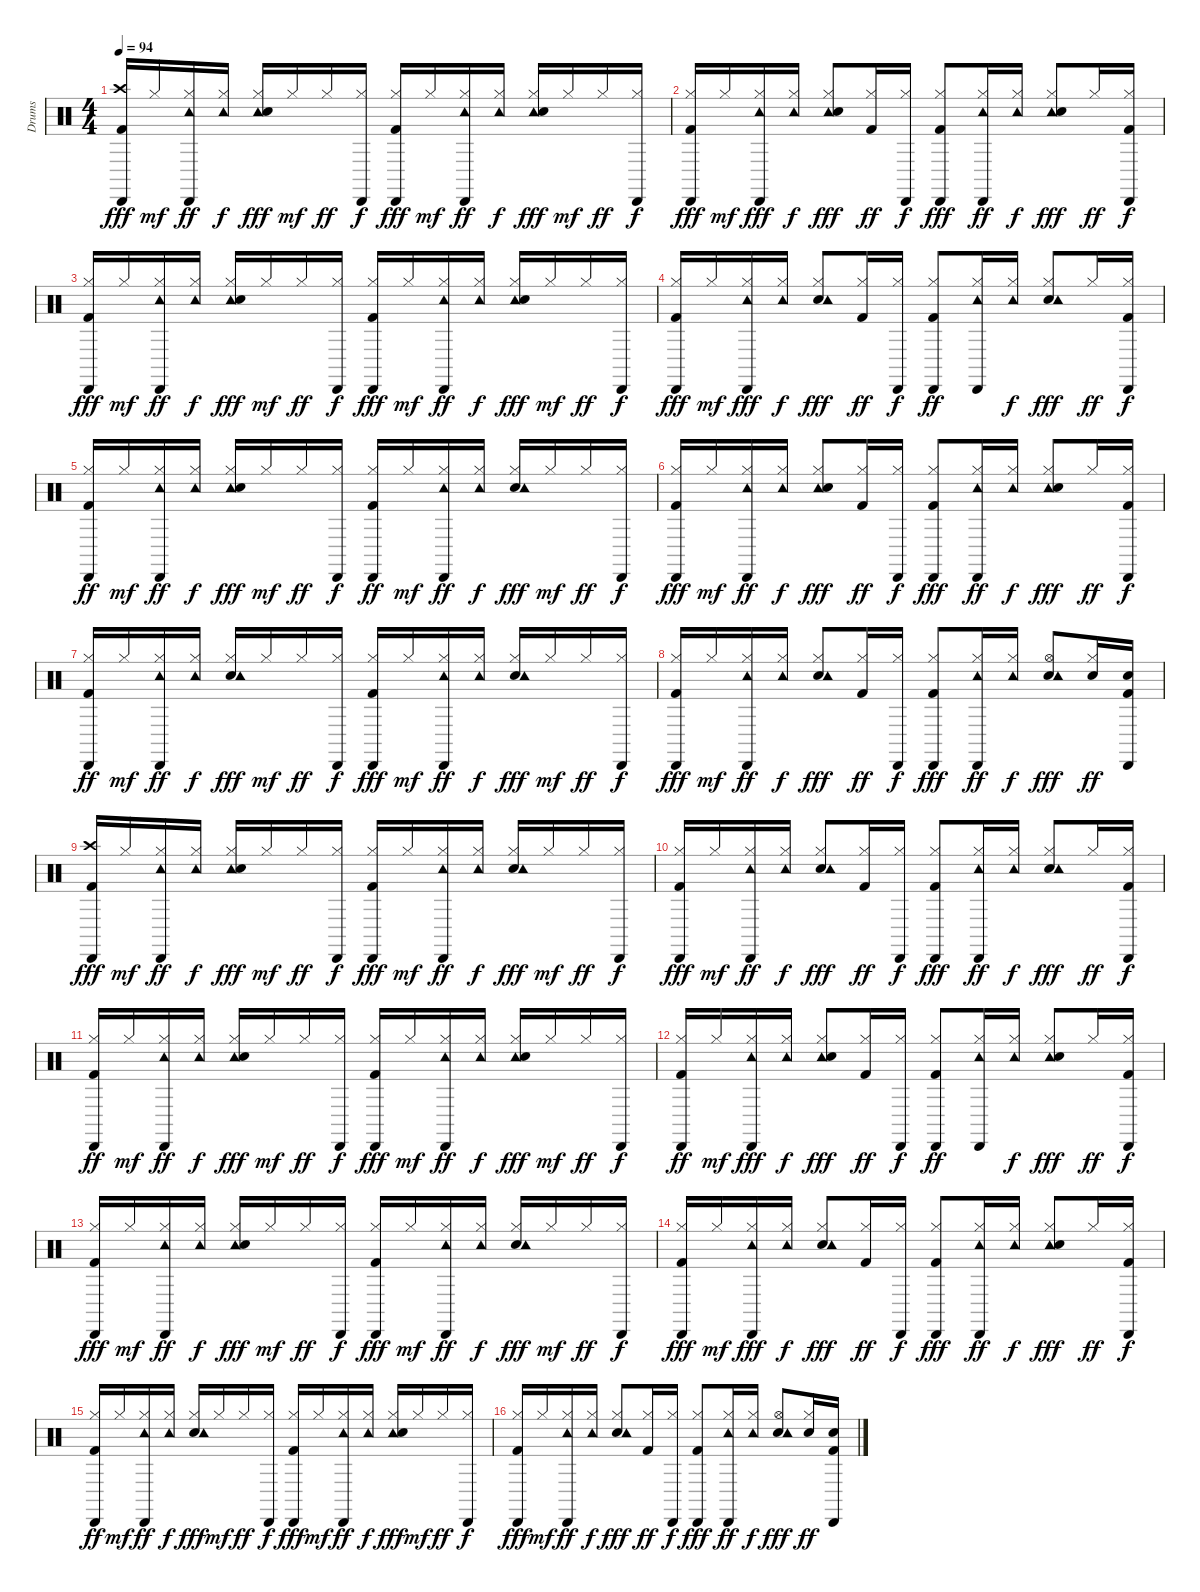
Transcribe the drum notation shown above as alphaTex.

\track ("Drums" "Drums") {instrument percussion}
\staff {score}
\articulation defaults
\ts (4 4)
\tempo 94
\clef neutral
\ks c
("Crash high (hit)" "Cabasa (hit)" "Kick (hit) 2").16{dy fff} "Hi-Hat (closed)".16{dy mf} ("Cabasa (hit)" "Hi-Hat (closed)" "Tambourine (hit)").16{dy ff} ("Tambourine (hit)" "Hi-Hat (closed)").16{dy f} ("Hi-Hat (closed)" "Tambourine (hit)" "Snare (hit) 2").16{dy fff} "Hi-Hat (closed)".16{dy mf} "Hi-Hat (closed)".16{dy ff} ("Hi-Hat (closed)" "Cabasa (hit)").16{dy f} ("Cabasa (hit)" "Kick (hit) 2" "Hi-Hat (closed)").16{dy fff} "Hi-Hat (closed)".16{dy mf} ("Hi-Hat (closed)" "Cabasa (hit)" "Tambourine (hit)").16{dy ff} ("Tambourine (hit)" "Hi-Hat (closed)").16{dy f} ("Hi-Hat (closed)" "Tambourine (hit)" "Snare (hit) 2").16{dy fff} "Hi-Hat (closed)".16{dy mf} "Hi-Hat (closed)".16{dy ff} ("Hi-Hat (closed)" "Cabasa (hit)").16{dy f} |
("Cabasa (hit)" "Hi-Hat (closed)" "Kick (hit) 2").16{dy fff} "Hi-Hat (closed)".16{dy mf} ("Cabasa (hit)" "Hi-Hat (closed)" "Tambourine (hit)").16{dy fff} ("Tambourine (hit)" "Hi-Hat (closed)").16{dy f} ("Tambourine (hit)" "Hi-Hat (closed)" "Snare (hit) 2").8{dy fff} ("Hi-Hat (closed)" "Kick (hit) 2").16{dy ff} ("Hi-Hat (closed)" "Cabasa (hit)").16{dy f} ("Cabasa (hit)" "Hi-Hat (closed)" "Kick (hit) 2").8{dy fff} ("Cabasa (hit)" "Tambourine (hit)" "Hi-Hat (closed)").16{dy ff} ("Hi-Hat (closed)" "Tambourine (hit)").16{dy f} ("Hi-Hat (closed)" "Tambourine (hit)" "Snare (hit) 2").8{dy fff} "Hi-Hat (closed)".16{dy ff} ("Hi-Hat (closed)" "Cabasa (hit)" "Kick (hit) 2").16{dy f} |
("Cabasa (hit)" "Hi-Hat (closed)" "Kick (hit) 2").16{dy fff} "Hi-Hat (closed)".16{dy mf} ("Cabasa (hit)" "Hi-Hat (closed)" "Tambourine (hit)").16{dy ff} ("Tambourine (hit)" "Hi-Hat (closed)").16{dy f} ("Hi-Hat (closed)" "Tambourine (hit)" "Snare (hit) 2").16{dy fff} "Hi-Hat (closed)".16{dy mf} "Hi-Hat (closed)".16{dy ff} ("Cabasa (hit)" "Hi-Hat (closed)").16{dy f} ("Cabasa (hit)" "Kick (hit) 2" "Hi-Hat (closed)").16{dy fff} "Hi-Hat (closed)".16{dy mf} ("Hi-Hat (closed)" "Tambourine (hit)" "Cabasa (hit)").16{dy ff} ("Hi-Hat (closed)" "Tambourine (hit)").16{dy f} ("Hi-Hat (closed)" "Tambourine (hit)" "Snare (hit) 2").16{dy fff} "Hi-Hat (closed)".16{dy mf} "Hi-Hat (closed)".16{dy ff} ("Hi-Hat (closed)" "Cabasa (hit)").16{dy f} |
("Cabasa (hit)" "Kick (hit) 2" "Hi-Hat (closed)").16{dy fff} "Hi-Hat (closed)".16{dy mf} ("Hi-Hat (closed)" "Cabasa (hit)" "Tambourine (hit)").16{dy fff} ("Tambourine (hit)" "Hi-Hat (closed)").16{dy f} ("Snare (hit) 2" "Hi-Hat (closed)" "Tambourine (hit)").8{dy fff} ("Kick (hit) 2" "Hi-Hat (closed)").16{dy ff} ("Hi-Hat (closed)" "Cabasa (hit)").16{dy f} ("Hi-Hat (closed)" "Kick (hit) 2" "Cabasa (hit)").8{dy ff} ("Hi-Hat (closed)" "Cabasa (hit)" "Tambourine (hit)").16 ("Hi-Hat (closed)" "Tambourine (hit)").16{dy f} ("Snare (hit) 2" "Hi-Hat (closed)" "Tambourine (hit)").8{dy fff} "Hi-Hat (closed)".16{dy ff} ("Cabasa (hit)" "Kick (hit) 2" "Hi-Hat (closed)").16{dy f} |
("Hi-Hat (closed)" "Kick (hit) 2" "Cabasa (hit)").16{dy ff} "Hi-Hat (closed)".16{dy mf} ("Hi-Hat (closed)" "Tambourine (hit)" "Cabasa (hit)").16{dy ff} ("Tambourine (hit)" "Hi-Hat (closed)").16{dy f} ("Tambourine (hit)" "Snare (hit) 2" "Hi-Hat (closed)").16{dy fff} "Hi-Hat (closed)".16{dy mf} "Hi-Hat (closed)".16{dy ff} ("Hi-Hat (closed)" "Cabasa (hit)").16{dy f} ("Hi-Hat (closed)" "Kick (hit) 2" "Cabasa (hit)").16{dy ff} "Hi-Hat (closed)".16{dy mf} ("Hi-Hat (closed)" "Cabasa (hit)" "Tambourine (hit)").16{dy ff} ("Tambourine (hit)" "Hi-Hat (closed)").16{dy f} ("Snare (hit) 2" "Tambourine (hit)" "Hi-Hat (closed)").16{dy fff} "Hi-Hat (closed)".16{dy mf} "Hi-Hat (closed)".16{dy ff} ("Cabasa (hit)" "Hi-Hat (closed)").16{dy f} |
("Kick (hit) 2" "Cabasa (hit)" "Hi-Hat (closed)").16{dy fff} "Hi-Hat (closed)".16{dy mf} ("Tambourine (hit)" "Cabasa (hit)" "Hi-Hat (closed)").16{dy ff} ("Hi-Hat (closed)" "Tambourine (hit)").16{dy f} ("Tambourine (hit)" "Snare (hit) 2" "Hi-Hat (closed)").8{dy fff} ("Hi-Hat (closed)" "Kick (hit) 2").16{dy ff} ("Hi-Hat (closed)" "Cabasa (hit)").16{dy f} ("Cabasa (hit)" "Kick (hit) 2" "Hi-Hat (closed)").8{dy fff} ("Hi-Hat (closed)" "Tambourine (hit)" "Cabasa (hit)").16{dy ff} ("Hi-Hat (closed)" "Tambourine (hit)").16{dy f} ("Tambourine (hit)" "Snare (hit) 2" "Hi-Hat (closed)").8{dy fff} "Hi-Hat (closed)".16{dy ff} ("Kick (hit) 2" "Cabasa (hit)" "Hi-Hat (closed)").16{dy f} |
("Kick (hit) 2" "Hi-Hat (closed)" "Cabasa (hit)").16{dy ff} "Hi-Hat (closed)".16{dy mf} ("Tambourine (hit)" "Cabasa (hit)" "Hi-Hat (closed)").16{dy ff} ("Hi-Hat (closed)" "Tambourine (hit)").16{dy f} ("Snare (hit) 2" "Hi-Hat (closed)" "Tambourine (hit)").16{dy fff} "Hi-Hat (closed)".16{dy mf} "Hi-Hat (closed)".16{dy ff} ("Cabasa (hit)" "Hi-Hat (closed)").16{dy f} ("Kick (hit) 2" "Cabasa (hit)" "Hi-Hat (closed)").16{dy fff} "Hi-Hat (closed)".16{dy mf} ("Cabasa (hit)" "Hi-Hat (closed)" "Tambourine (hit)").16{dy ff} ("Tambourine (hit)" "Hi-Hat (closed)").16{dy f} ("Hi-Hat (closed)" "Snare (hit) 2" "Tambourine (hit)").16{dy fff} "Hi-Hat (closed)".16{dy mf} "Hi-Hat (closed)".16{dy ff} ("Cabasa (hit)" "Hi-Hat (closed)").16{dy f} |
("Kick (hit) 2" "Cabasa (hit)" "Hi-Hat (closed)").16{dy fff} "Hi-Hat (closed)".16{dy mf} ("Tambourine (hit)" "Hi-Hat (closed)" "Cabasa (hit)").16{dy ff} ("Hi-Hat (closed)" "Tambourine (hit)").16{dy f} ("Hi-Hat (closed)" "Snare (hit) 2" "Tambourine (hit)").8{dy fff} ("Hi-Hat (closed)" "Kick (hit) 2").16{dy ff} ("Cabasa (hit)" "Hi-Hat (closed)").16{dy f} ("Cabasa (hit)" "Kick (hit) 2" "Hi-Hat (closed)").8{dy fff} ("Hi-Hat (closed)" "Cabasa (hit)" "Tambourine (hit)").16{dy ff} ("Tambourine (hit)" "Hi-Hat (closed)").16{dy f} ("Snare (hit) 2" "Tambourine (hit)" "Hi-Hat (open)").8{dy fff} ("Snare (hit) 2" "Hi-Hat (closed)").16{dy ff} ("Snare (hit) 2" "Kick (hit) 2" "Cabasa (hit)").16 |
("Cabasa (hit)" "Crash high (hit)" "Kick (hit) 2").16{dy fff} "Hi-Hat (closed)".16{dy mf} ("Cabasa (hit)" "Hi-Hat (closed)" "Tambourine (hit)").16{dy ff} ("Hi-Hat (closed)" "Tambourine (hit)").16{dy f} ("Tambourine (hit)" "Snare (hit) 2" "Hi-Hat (closed)").16{dy fff} "Hi-Hat (closed)".16{dy mf} "Hi-Hat (closed)".16{dy ff} ("Cabasa (hit)" "Hi-Hat (closed)").16{dy f} ("Cabasa (hit)" "Hi-Hat (closed)" "Kick (hit) 2").16{dy fff} "Hi-Hat (closed)".16{dy mf} ("Hi-Hat (closed)" "Tambourine (hit)" "Cabasa (hit)").16{dy ff} ("Tambourine (hit)" "Hi-Hat (closed)").16{dy f} ("Hi-Hat (closed)" "Snare (hit) 2" "Tambourine (hit)").16{dy fff} "Hi-Hat (closed)".16{dy mf} "Hi-Hat (closed)".16{dy ff} ("Cabasa (hit)" "Hi-Hat (closed)").16{dy f} |
("Hi-Hat (closed)" "Cabasa (hit)" "Kick (hit) 2").16{dy fff} "Hi-Hat (closed)".16{dy mf} ("Tambourine (hit)" "Hi-Hat (closed)" "Cabasa (hit)").16{dy ff} ("Tambourine (hit)" "Hi-Hat (closed)").16{dy f} ("Snare (hit) 2" "Hi-Hat (closed)" "Tambourine (hit)").8{dy fff} ("Hi-Hat (closed)" "Kick (hit) 2").16{dy ff} ("Cabasa (hit)" "Hi-Hat (closed)").16{dy f} ("Cabasa (hit)" "Hi-Hat (closed)" "Kick (hit) 2").8{dy fff} ("Tambourine (hit)" "Cabasa (hit)" "Hi-Hat (closed)").16{dy ff} ("Hi-Hat (closed)" "Tambourine (hit)").16{dy f} ("Snare (hit) 2" "Tambourine (hit)" "Hi-Hat (closed)").8{dy fff} "Hi-Hat (closed)".16{dy ff} ("Kick (hit) 2" "Cabasa (hit)" "Hi-Hat (closed)").16{dy f} |
("Kick (hit) 2" "Hi-Hat (closed)" "Cabasa (hit)").16{dy ff} "Hi-Hat (closed)".16{dy mf} ("Hi-Hat (closed)" "Cabasa (hit)" "Tambourine (hit)").16{dy ff} ("Tambourine (hit)" "Hi-Hat (closed)").16{dy f} ("Tambourine (hit)" "Snare (hit) 2" "Hi-Hat (closed)").16{dy fff} "Hi-Hat (closed)".16{dy mf} "Hi-Hat (closed)".16{dy ff} ("Cabasa (hit)" "Hi-Hat (closed)").16{dy f} ("Hi-Hat (closed)" "Cabasa (hit)" "Kick (hit) 2").16{dy fff} "Hi-Hat (closed)".16{dy mf} ("Cabasa (hit)" "Hi-Hat (closed)" "Tambourine (hit)").16{dy ff} ("Hi-Hat (closed)" "Tambourine (hit)").16{dy f} ("Hi-Hat (closed)" "Tambourine (hit)" "Snare (hit) 2").16{dy fff} "Hi-Hat (closed)".16{dy mf} "Hi-Hat (closed)".16{dy ff} ("Hi-Hat (closed)" "Cabasa (hit)").16{dy f} |
("Hi-Hat (closed)" "Kick (hit) 2" "Cabasa (hit)").16{dy ff} "Hi-Hat (closed)".16{dy mf} ("Hi-Hat (closed)" "Cabasa (hit)" "Tambourine (hit)").16{dy fff} ("Hi-Hat (closed)" "Tambourine (hit)").16{dy f} ("Tambourine (hit)" "Hi-Hat (closed)" "Snare (hit) 2").8{dy fff} ("Hi-Hat (closed)" "Kick (hit) 2").16{dy ff} ("Cabasa (hit)" "Hi-Hat (closed)").16{dy f} ("Hi-Hat (closed)" "Kick (hit) 2" "Cabasa (hit)").8{dy ff} ("Cabasa (hit)" "Tambourine (hit)" "Hi-Hat (closed)").16 ("Tambourine (hit)" "Hi-Hat (closed)").16{dy f} ("Tambourine (hit)" "Hi-Hat (closed)" "Snare (hit) 2").8{dy fff} "Hi-Hat (closed)".16{dy ff} ("Hi-Hat (closed)" "Cabasa (hit)" "Kick (hit) 2").16{dy f} |
("Cabasa (hit)" "Hi-Hat (closed)" "Kick (hit) 2").16{dy fff} "Hi-Hat (closed)".16{dy mf} ("Cabasa (hit)" "Hi-Hat (closed)" "Tambourine (hit)").16{dy ff} ("Tambourine (hit)" "Hi-Hat (closed)").16{dy f} ("Hi-Hat (closed)" "Tambourine (hit)" "Snare (hit) 2").16{dy fff} "Hi-Hat (closed)".16{dy mf} "Hi-Hat (closed)".16{dy ff} ("Cabasa (hit)" "Hi-Hat (closed)").16{dy f} ("Kick (hit) 2" "Cabasa (hit)" "Hi-Hat (closed)").16{dy fff} "Hi-Hat (closed)".16{dy mf} ("Tambourine (hit)" "Cabasa (hit)" "Hi-Hat (closed)").16{dy ff} ("Hi-Hat (closed)" "Tambourine (hit)").16{dy f} ("Snare (hit) 2" "Tambourine (hit)" "Hi-Hat (closed)").16{dy fff} "Hi-Hat (closed)".16{dy mf} "Hi-Hat (closed)".16{dy ff} ("Cabasa (hit)" "Hi-Hat (closed)").16{dy f} |
("Cabasa (hit)" "Kick (hit) 2" "Hi-Hat (closed)").16{dy fff} "Hi-Hat (closed)".16{dy mf} ("Hi-Hat (closed)" "Cabasa (hit)" "Tambourine (hit)").16{dy fff} ("Tambourine (hit)" "Hi-Hat (closed)").16{dy f} ("Snare (hit) 2" "Tambourine (hit)" "Hi-Hat (closed)").8{dy fff} ("Kick (hit) 2" "Hi-Hat (closed)").16{dy ff} ("Hi-Hat (closed)" "Cabasa (hit)").16{dy f} ("Hi-Hat (closed)" "Cabasa (hit)" "Kick (hit) 2").8{dy fff} ("Hi-Hat (closed)" "Cabasa (hit)" "Tambourine (hit)").16{dy ff} ("Hi-Hat (closed)" "Tambourine (hit)").16{dy f} ("Hi-Hat (closed)" "Tambourine (hit)" "Snare (hit) 2").8{dy fff} "Hi-Hat (closed)".16{dy ff} ("Cabasa (hit)" "Hi-Hat (closed)" "Kick (hit) 2").16{dy f} |
("Hi-Hat (closed)" "Kick (hit) 2" "Cabasa (hit)").16{dy ff} "Hi-Hat (closed)".16{dy mf} ("Cabasa (hit)" "Hi-Hat (closed)" "Tambourine (hit)").16{dy ff} ("Hi-Hat (closed)" "Tambourine (hit)").16{dy f} ("Snare (hit) 2" "Tambourine (hit)" "Hi-Hat (closed)").16{dy fff} "Hi-Hat (closed)".16{dy mf} "Hi-Hat (closed)".16{dy ff} ("Hi-Hat (closed)" "Cabasa (hit)").16{dy f} ("Cabasa (hit)" "Kick (hit) 2" "Hi-Hat (closed)").16{dy fff} "Hi-Hat (closed)".16{dy mf} ("Hi-Hat (closed)" "Tambourine (hit)" "Cabasa (hit)").16{dy ff} ("Tambourine (hit)" "Hi-Hat (closed)").16{dy f} ("Tambourine (hit)" "Snare (hit) 2" "Hi-Hat (closed)").16{dy fff} "Hi-Hat (closed)".16{dy mf} "Hi-Hat (closed)".16{dy ff} ("Cabasa (hit)" "Hi-Hat (closed)").16{dy f} |
("Cabasa (hit)" "Hi-Hat (closed)" "Kick (hit) 2").16{dy fff} "Hi-Hat (closed)".16{dy mf} ("Tambourine (hit)" "Hi-Hat (closed)" "Cabasa (hit)").16{dy ff} ("Hi-Hat (closed)" "Tambourine (hit)").16{dy f} ("Hi-Hat (closed)" "Snare (hit) 2" "Tambourine (hit)").8{dy fff} ("Kick (hit) 2" "Hi-Hat (closed)").16{dy ff} ("Hi-Hat (closed)" "Cabasa (hit)").16{dy f} ("Kick (hit) 2" "Cabasa (hit)" "Hi-Hat (closed)").8{dy fff} ("Hi-Hat (closed)" "Cabasa (hit)" "Tambourine (hit)").16{dy ff} ("Hi-Hat (closed)" "Tambourine (hit)").16{dy f} ("Snare (hit) 2" "Tambourine (hit)" "Hi-Hat (open)").8{dy fff} ("Snare (hit) 2" "Hi-Hat (closed)").16{dy ff} ("Kick (hit) 2" "Snare (hit) 2" "Cabasa (hit)").16
